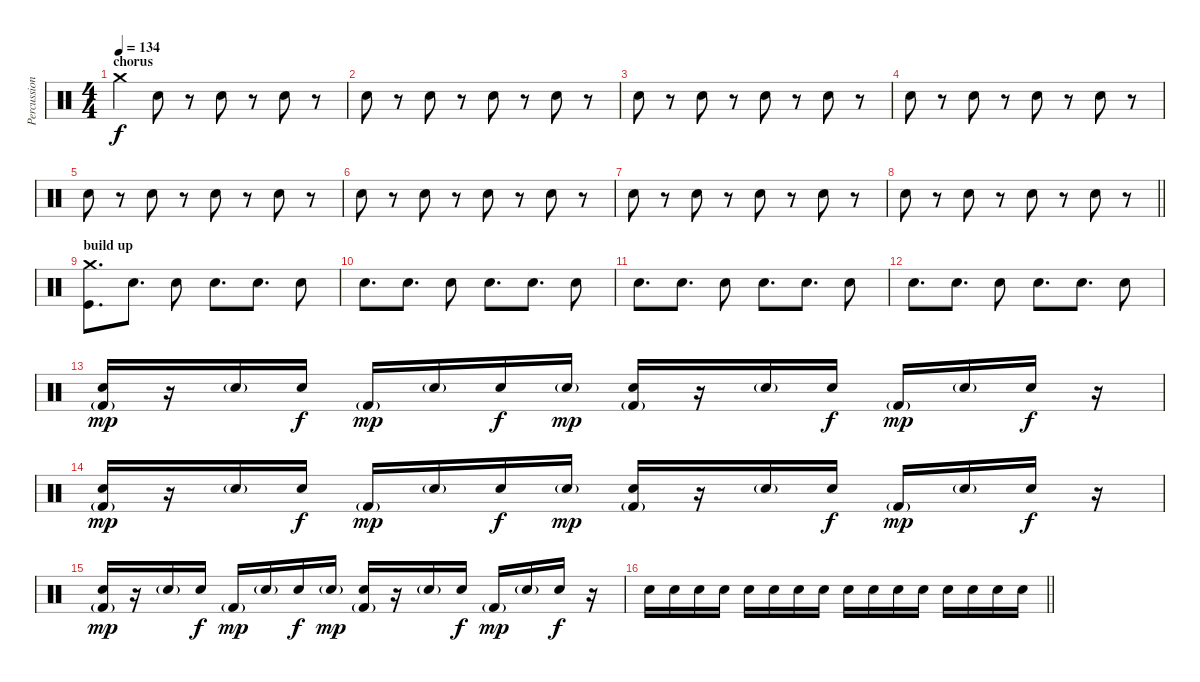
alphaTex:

\track ("Percussion" "Percussion") {instrument percussion}
\staff {score}
\articulation defaults
\ts (4 4)
\section ("" "chorus")
\tempo 134
\clef neutral
\ks c "Crash medium (hit)".4{dy f} "Hand Clap (hit)".8
r.8 "Hand Clap (hit)".8 r.8 "Hand Clap (hit)".8 r.8 |
"Hand Clap (hit)".8 r.8 "Hand Clap (hit)".8 r.8 "Hand Clap (hit)".8 r.8 "Hand Clap (hit)".8 r.8 |
"Hand Clap (hit)".8 r.8 "Hand Clap (hit)".8 r.8 "Hand Clap (hit)".8 r.8 "Hand Clap (hit)".8 r.8 |
"Hand Clap (hit)".8 r.8 "Hand Clap (hit)".8 r.8 "Hand Clap (hit)".8 r.8 "Hand Clap (hit)".8 r.8 |
"Hand Clap (hit)".8 r.8 "Hand Clap (hit)".8 r.8 "Hand Clap (hit)".8 r.8 "Hand Clap (hit)".8 r.8 |
"Hand Clap (hit)".8 r.8 "Hand Clap (hit)".8 r.8 "Hand Clap (hit)".8 r.8 "Hand Clap (hit)".8 r.8 |
"Hand Clap (hit)".8 r.8 "Hand Clap (hit)".8 r.8 "Hand Clap (hit)".8 r.8 "Hand Clap (hit)".8 r.8 |
\barLineRight lightlight "Hand Clap (hit)".8
r.8 "Hand Clap (hit)".8 r.8 "Hand Clap (hit)".8 r.8 "Hand Clap (hit)".8 r.8 |
\section ("" "build up")
("Crash medium (hit)" "Kick (hit)").8{d} "Electric Snare (hit)".8{d} "Electric Snare (hit)".8 "Electric Snare (hit)".8{d} "Electric Snare (hit)".8{d} "Electric Snare (hit)".8 |
"Electric Snare (hit)".8{d} "Electric Snare (hit)".8{d} "Electric Snare (hit)".8 "Electric Snare (hit)".8{d} "Electric Snare (hit)".8{d} "Electric Snare (hit)".8 |
"Electric Snare (hit)".8{d} "Electric Snare (hit)".8{d} "Electric Snare (hit)".8 "Electric Snare (hit)".8{d} "Electric Snare (hit)".8{d} "Electric Snare (hit)".8 |
"Electric Snare (hit)".8{d} "Electric Snare (hit)".8{d} "Electric Snare (hit)".8 "Electric Snare (hit)".8{d} "Electric Snare (hit)".8{d} "Electric Snare (hit)".8 |
("Kick (hit) 2"{g} "Electric Snare (hit)").16{dy mp} r.16 "Electric Snare (hit)"{g}.16 "Electric Snare (hit)".16{dy f} "Kick (hit) 2"{g}.16{dy mp} "Electric Snare (hit)"{g}.16 "Electric Snare (hit)".16{dy f} "Electric Snare (hit)"{g}.16{dy mp} ("Kick (hit) 2"{g} "Electric Snare (hit)").16 r.16 "Electric Snare (hit)"{g}.16 "Electric Snare (hit)".16{dy f} "Kick (hit) 2"{g}.16{dy mp} "Electric Snare (hit)"{g}.16 "Electric Snare (hit)".16{dy f} r.16 |
("Kick (hit) 2"{g} "Electric Snare (hit)").16{dy mp} r.16 "Electric Snare (hit)"{g}.16 "Electric Snare (hit)".16{dy f} "Kick (hit) 2"{g}.16{dy mp} "Electric Snare (hit)"{g}.16 "Electric Snare (hit)".16{dy f} "Electric Snare (hit)"{g}.16{dy mp} ("Kick (hit) 2"{g} "Electric Snare (hit)").16 r.16 "Electric Snare (hit)"{g}.16 "Electric Snare (hit)".16{dy f} "Kick (hit) 2"{g}.16{dy mp} "Electric Snare (hit)"{g}.16 "Electric Snare (hit)".16{dy f} r.16 |
("Kick (hit) 2"{g} "Electric Snare (hit)").16{dy mp} r.16 "Electric Snare (hit)"{g}.16 "Electric Snare (hit)".16{dy f} "Kick (hit) 2"{g}.16{dy mp} "Electric Snare (hit)"{g}.16 "Electric Snare (hit)".16{dy f} "Electric Snare (hit)"{g}.16{dy mp} ("Kick (hit) 2"{g} "Electric Snare (hit)").16 r.16 "Electric Snare (hit)"{g}.16 "Electric Snare (hit)".16{dy f} "Kick (hit) 2"{g}.16{dy mp} "Electric Snare (hit)"{g}.16 "Electric Snare (hit)".16{dy f} r.16 |
\barLineRight lightlight "Electric Snare (hit)".16 "Electric Snare (hit)".16 "Electric Snare (hit)".16 "Electric Snare (hit)".16 "Electric Snare (hit)".16 "Electric Snare (hit)".16 "Electric Snare (hit)".16 "Electric Snare (hit)".16 "Electric Snare (hit)".16 "Electric Snare (hit)".16 "Electric Snare (hit)".16 "Electric Snare (hit)".16 "Electric Snare (hit)".16 "Electric Snare (hit)".16 "Electric Snare (hit)".16 "Electric Snare (hit)".16
